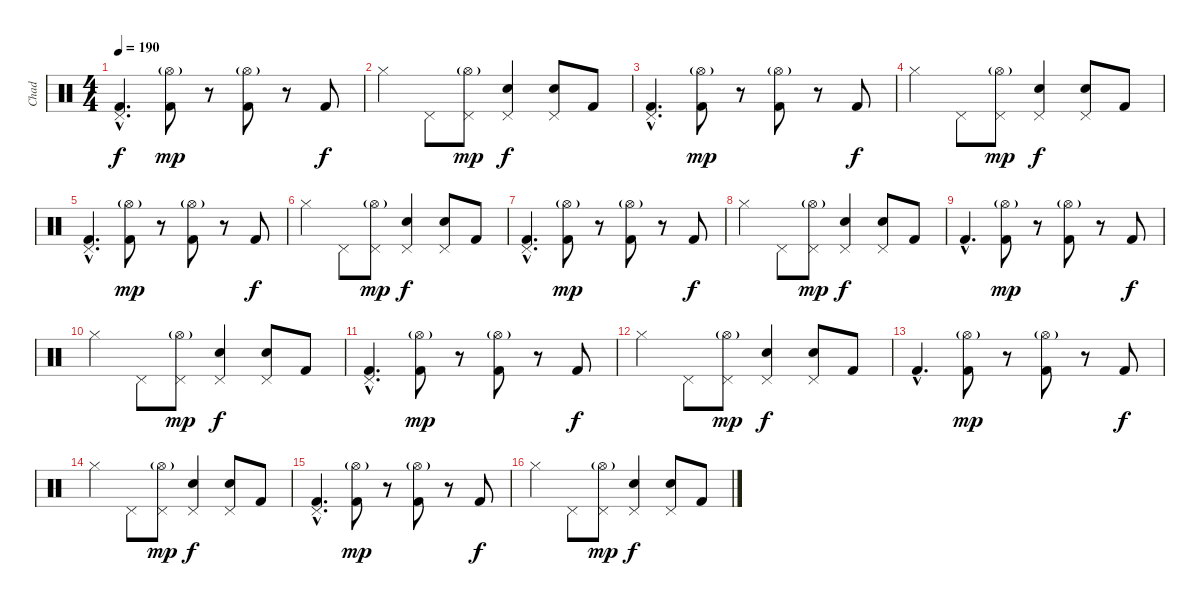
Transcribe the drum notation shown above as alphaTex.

\track ("Chad" "Chad") {instrument percussion}
\staff {score}
\articulation defaults
\ts (4 4)
\section ("" "")
\tempo 190
\clef neutral
\ks c
("Kick (hit) 2"{hac} "Pedal Hi-Hat (hit)"{hac}).4{d dy f} ("Kick (hit) 2" "Hi-Hat (open)"{g}).8{dy mp} r.8 ("Kick (hit) 2" "Hi-Hat (open)"{g}).8 r.8 "Kick (hit) 2".8{dy f} |
"Hi-Hat (closed)".4 "Pedal Hi-Hat (hit)".8 ("Pedal Hi-Hat (hit)" "Hi-Hat (open)"{g}).8{dy mp} ("Electric Snare (hit)" "Pedal Hi-Hat (hit)").4{dy f} ("Electric Snare (hit)" "Pedal Hi-Hat (hit)").8 "Kick (hit) 2".8 |
("Kick (hit) 2"{hac} "Pedal Hi-Hat (hit)"{hac}).4{d} ("Kick (hit) 2" "Hi-Hat (open)"{g}).8{dy mp} r.8 ("Kick (hit) 2" "Hi-Hat (open)"{g}).8 r.8 "Kick (hit) 2".8{dy f} |
"Hi-Hat (closed)".4 "Pedal Hi-Hat (hit)".8 ("Pedal Hi-Hat (hit)" "Hi-Hat (open)"{g}).8{dy mp} ("Electric Snare (hit)" "Pedal Hi-Hat (hit)").4{dy f} ("Electric Snare (hit)" "Pedal Hi-Hat (hit)").8 "Kick (hit) 2".8 |
("Kick (hit) 2"{hac} "Pedal Hi-Hat (hit)"{hac}).4{d} ("Kick (hit) 2" "Hi-Hat (open)"{g}).8{dy mp} r.8 ("Kick (hit) 2" "Hi-Hat (open)"{g}).8 r.8 "Kick (hit) 2".8{dy f} |
"Hi-Hat (closed)".4 "Pedal Hi-Hat (hit)".8 ("Pedal Hi-Hat (hit)" "Hi-Hat (open)"{g}).8{dy mp} ("Electric Snare (hit)" "Pedal Hi-Hat (hit)").4{dy f} ("Electric Snare (hit)" "Pedal Hi-Hat (hit)").8 "Kick (hit) 2".8 |
("Kick (hit) 2"{hac} "Pedal Hi-Hat (hit)"{hac}).4{d} ("Kick (hit) 2" "Hi-Hat (open)"{g}).8{dy mp} r.8 ("Kick (hit) 2" "Hi-Hat (open)"{g}).8 r.8 "Kick (hit) 2".8{dy f} |
"Hi-Hat (closed)".4 "Pedal Hi-Hat (hit)".8 ("Pedal Hi-Hat (hit)" "Hi-Hat (open)"{g}).8{dy mp} ("Electric Snare (hit)" "Pedal Hi-Hat (hit)").4{dy f} ("Electric Snare (hit)" "Pedal Hi-Hat (hit)").8 "Kick (hit) 2".8 |
\section ("" "")
"Kick (hit) 2"{hac}.4{d} ("Kick (hit) 2" "Hi-Hat (open)"{g}).8{dy mp} r.8 ("Kick (hit) 2" "Hi-Hat (open)"{g}).8 r.8 "Kick (hit) 2".8{dy f} |
"Hi-Hat (closed)".4 "Pedal Hi-Hat (hit)".8 ("Pedal Hi-Hat (hit)" "Hi-Hat (open)"{g}).8{dy mp} ("Electric Snare (hit)" "Pedal Hi-Hat (hit)").4{dy f} ("Electric Snare (hit)" "Pedal Hi-Hat (hit)").8 "Kick (hit) 2".8 |
("Kick (hit) 2"{hac} "Pedal Hi-Hat (hit)"{hac}).4{d} ("Kick (hit) 2" "Hi-Hat (open)"{g}).8{dy mp} r.8 ("Kick (hit) 2" "Hi-Hat (open)"{g}).8 r.8 "Kick (hit) 2".8{dy f} |
"Hi-Hat (closed)".4 "Pedal Hi-Hat (hit)".8 ("Pedal Hi-Hat (hit)" "Hi-Hat (open)"{g}).8{dy mp} ("Electric Snare (hit)" "Pedal Hi-Hat (hit)").4{dy f} ("Electric Snare (hit)" "Pedal Hi-Hat (hit)").8 "Kick (hit) 2".8 |
"Kick (hit) 2"{hac}.4{d} ("Kick (hit) 2" "Hi-Hat (open)"{g}).8{dy mp} r.8 ("Kick (hit) 2" "Hi-Hat (open)"{g}).8 r.8 "Kick (hit) 2".8{dy f} |
"Hi-Hat (closed)".4 "Pedal Hi-Hat (hit)".8 ("Pedal Hi-Hat (hit)" "Hi-Hat (open)"{g}).8{dy mp} ("Electric Snare (hit)" "Pedal Hi-Hat (hit)").4{dy f} ("Electric Snare (hit)" "Pedal Hi-Hat (hit)").8 "Kick (hit) 2".8 |
("Kick (hit) 2"{hac} "Pedal Hi-Hat (hit)"{hac}).4{d} ("Kick (hit) 2" "Hi-Hat (open)"{g}).8{dy mp} r.8 ("Kick (hit) 2" "Hi-Hat (open)"{g}).8 r.8 "Kick (hit) 2".8{dy f} |
"Hi-Hat (closed)".4 "Pedal Hi-Hat (hit)".8 ("Pedal Hi-Hat (hit)" "Hi-Hat (open)"{g}).8{dy mp} ("Electric Snare (hit)" "Pedal Hi-Hat (hit)").4{dy f} ("Electric Snare (hit)" "Pedal Hi-Hat (hit)").8 "Kick (hit) 2".8
